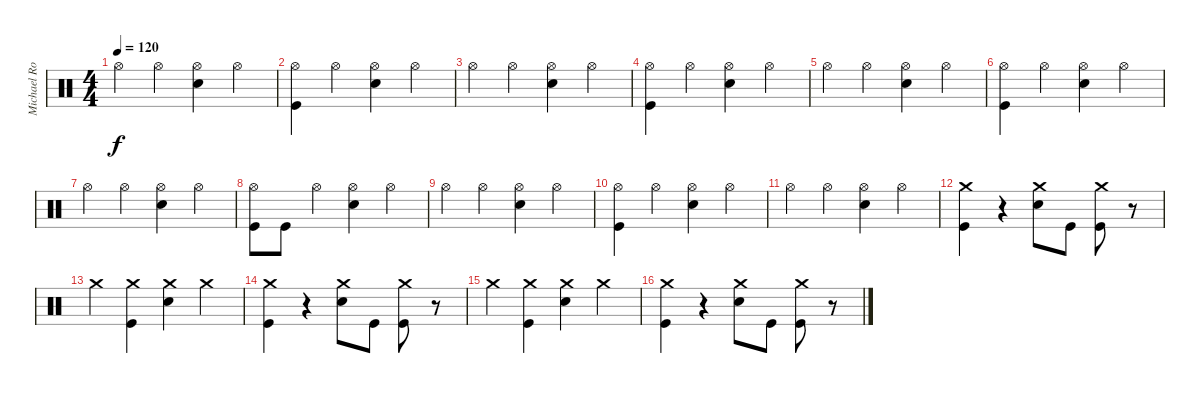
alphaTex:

\track ("Michael Roponus " "Michael Ro") {instrument percussion}
\staff {score}
\articulation defaults
\ts (4 4)
\tempo 120
\clef neutral
\ks c "Hi-Hat (open)".4{dy f} "Hi-Hat (open)".4
("Hi-Hat (open)" "Snare (hit) 2").4 "Hi-Hat (open)".4 |
("Hi-Hat (open)" "Kick (hit)").4 "Hi-Hat (open)".4 ("Hi-Hat (open)" "Snare (hit) 2").4 "Hi-Hat (open)".4 |
"Hi-Hat (open)".4 "Hi-Hat (open)".4 ("Hi-Hat (open)" "Snare (hit) 2").4 "Hi-Hat (open)".4 |
("Hi-Hat (open)" "Kick (hit)").4 "Hi-Hat (open)".4 ("Hi-Hat (open)" "Snare (hit) 2").4 "Hi-Hat (open)".4 |
"Hi-Hat (open)".4 "Hi-Hat (open)".4 ("Hi-Hat (open)" "Snare (hit) 2").4 "Hi-Hat (open)".4 |
("Hi-Hat (open)" "Kick (hit)").4 "Hi-Hat (open)".4 ("Hi-Hat (open)" "Snare (hit) 2").4 "Hi-Hat (open)".4 |
"Hi-Hat (open)".4 "Hi-Hat (open)".4 ("Hi-Hat (open)" "Snare (hit) 2").4 "Hi-Hat (open)".4 |
("Hi-Hat (open)" "Kick (hit)").8 "Kick (hit)".8 "Hi-Hat (open)".4 ("Hi-Hat (open)" "Snare (hit) 2").4 "Hi-Hat (open)".4 |
"Hi-Hat (open)".4 "Hi-Hat (open)".4 ("Hi-Hat (open)" "Snare (hit) 2").4 "Hi-Hat (open)".4 |
("Hi-Hat (open)" "Kick (hit)").4 "Hi-Hat (open)".4 ("Hi-Hat (open)" "Snare (hit) 2").4 "Hi-Hat (open)".4 |
"Hi-Hat (open)".4 "Hi-Hat (open)".4 ("Hi-Hat (open)" "Snare (hit) 2").4 "Hi-Hat (open)".4 |
("Crash medium (hit)" "Kick (hit)").4 r.4 ("Crash medium (hit)" "Snare (hit) 2").8 "Kick (hit)".8 ("Crash medium (hit)" "Kick (hit)").8 r.8 |
"Crash medium (hit)".4 ("Crash medium (hit)" "Kick (hit)").4 ("Crash medium (hit)" "Snare (hit) 2").4 "Crash medium (hit)".4 |
("Crash medium (hit)" "Kick (hit)").4 r.4 ("Crash medium (hit)" "Snare (hit) 2").8 "Kick (hit)".8 ("Crash medium (hit)" "Kick (hit)").8 r.8 |
"Crash medium (hit)".4 ("Crash medium (hit)" "Kick (hit)").4 ("Crash medium (hit)" "Snare (hit) 2").4 "Crash medium (hit)".4 |
("Crash medium (hit)" "Kick (hit)").4 r.4 ("Crash medium (hit)" "Snare (hit) 2").8 "Kick (hit)".8 ("Crash medium (hit)" "Kick (hit)").8 r.8
